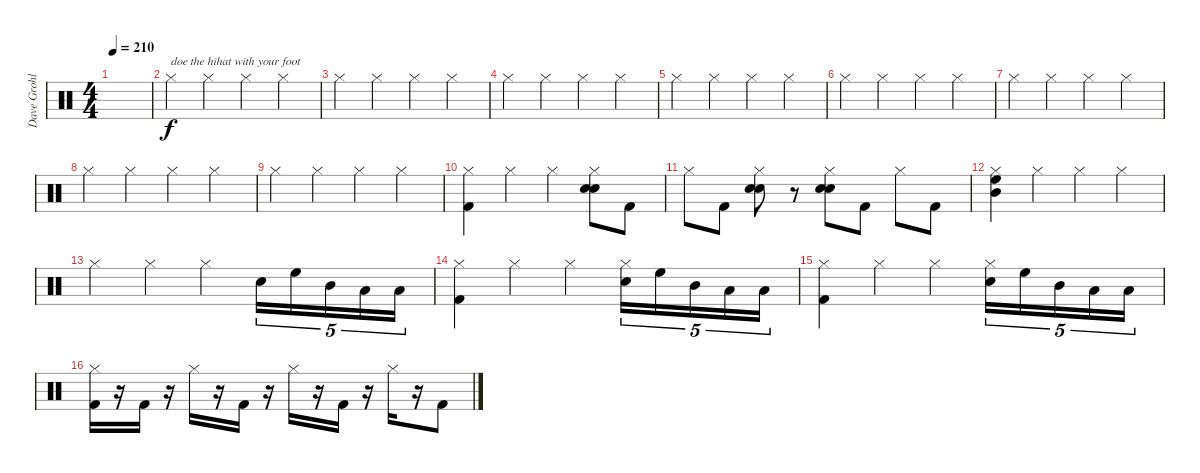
\track ("Dave Grohl" "Dave Grohl") {instrument percussion}
\staff {score}
\articulation defaults
\ts (4 4)
\tempo 210
\clef neutral
\ks c
|
"Hi-Hat (closed)".4{txt "doe the hihat with your foot "} "Hi-Hat (closed)".4 "Hi-Hat (closed)".4 "Hi-Hat (closed)".4 |
"Hi-Hat (closed)".4 "Hi-Hat (closed)".4 "Hi-Hat (closed)".4 "Hi-Hat (closed)".4 |
"Hi-Hat (closed)".4 "Hi-Hat (closed)".4 "Hi-Hat (closed)".4 "Hi-Hat (closed)".4 |
"Hi-Hat (closed)".4 "Hi-Hat (closed)".4 "Hi-Hat (closed)".4 "Hi-Hat (closed)".4 |
"Hi-Hat (closed)".4 "Hi-Hat (closed)".4 "Hi-Hat (closed)".4 "Hi-Hat (closed)".4 |
"Hi-Hat (closed)".4 "Hi-Hat (closed)".4 "Hi-Hat (closed)".4 "Hi-Hat (closed)".4 |
"Hi-Hat (closed)".4 "Hi-Hat (closed)".4 "Hi-Hat (closed)".4 "Hi-Hat (closed)".4 |
"Hi-Hat (closed)".4 "Hi-Hat (closed)".4 "Hi-Hat (closed)".4 "Hi-Hat (closed)".4 |
("Hi-Hat (closed)" "Kick (hit) 2").4 "Hi-Hat (closed)".4 "Hi-Hat (closed)".4 ("Hi-Hat (closed)" "Snare (hit) 2" "Snare (hit) 2").8{bd 480} "Kick (hit) 2".8 |
"Hi-Hat (closed)".8 "Kick (hit) 2".8 ("Hi-Hat (closed)" "Snare (hit) 2" "Snare (hit) 2").8{bd 480} r.8 ("Hi-Hat (closed)" "Snare (hit) 2" "Snare (hit) 2").8{bd 480} "Kick (hit) 2".8 "Hi-Hat (closed)".8 "Kick (hit) 2".8 |
("Hi-Hat (closed)" "High Floor Tom (hit)" "Mid Tom (hit)").4 "Hi-Hat (closed)".4 "Hi-Hat (closed)".4 "Hi-Hat (closed)".4 |
"Hi-Hat (closed)".4 "Hi-Hat (closed)".4 "Hi-Hat (closed)".4 "Snare (hit) 2".16{tu (5 4)} "High Floor Tom (hit)".16{tu (5 4)} "Mid Tom (hit)".16{tu (5 4)} "Low Tom (hit)".16{tu (5 4)} "Low Floor Tom (hit)".16{tu (5 4)} |
("Hi-Hat (closed)" "Kick (hit) 2").4 "Hi-Hat (closed)".4 "Hi-Hat (closed)".4 ("Hi-Hat (closed)" "Snare (hit) 2").16{tu (5 4)} "High Floor Tom (hit)".16{tu (5 4)} "Mid Tom (hit)".16{tu (5 4)} "Low Tom (hit)".16{tu (5 4)} "Low Floor Tom (hit)".16{tu (5 4)} |
("Hi-Hat (closed)" "Kick (hit) 2").4 "Hi-Hat (closed)".4 "Hi-Hat (closed)".4 ("Hi-Hat (closed)" "Snare (hit) 2").16{tu (5 4)} "High Floor Tom (hit)".16{tu (5 4)} "Mid Tom (hit)".16{tu (5 4)} "Low Tom (hit)".16{tu (5 4)} "Low Floor Tom (hit)".16{tu (5 4)} |
("Hi-Hat (closed)" "Kick (hit) 2").16 r.16 "Kick (hit) 2".16 r.16 "Hi-Hat (closed)".16 r.16 "Kick (hit) 2".16 r.16 "Hi-Hat (closed)".16 r.16 "Kick (hit) 2".16 r.16 "Hi-Hat (closed)".16 r.16 "Kick (hit) 2".8
